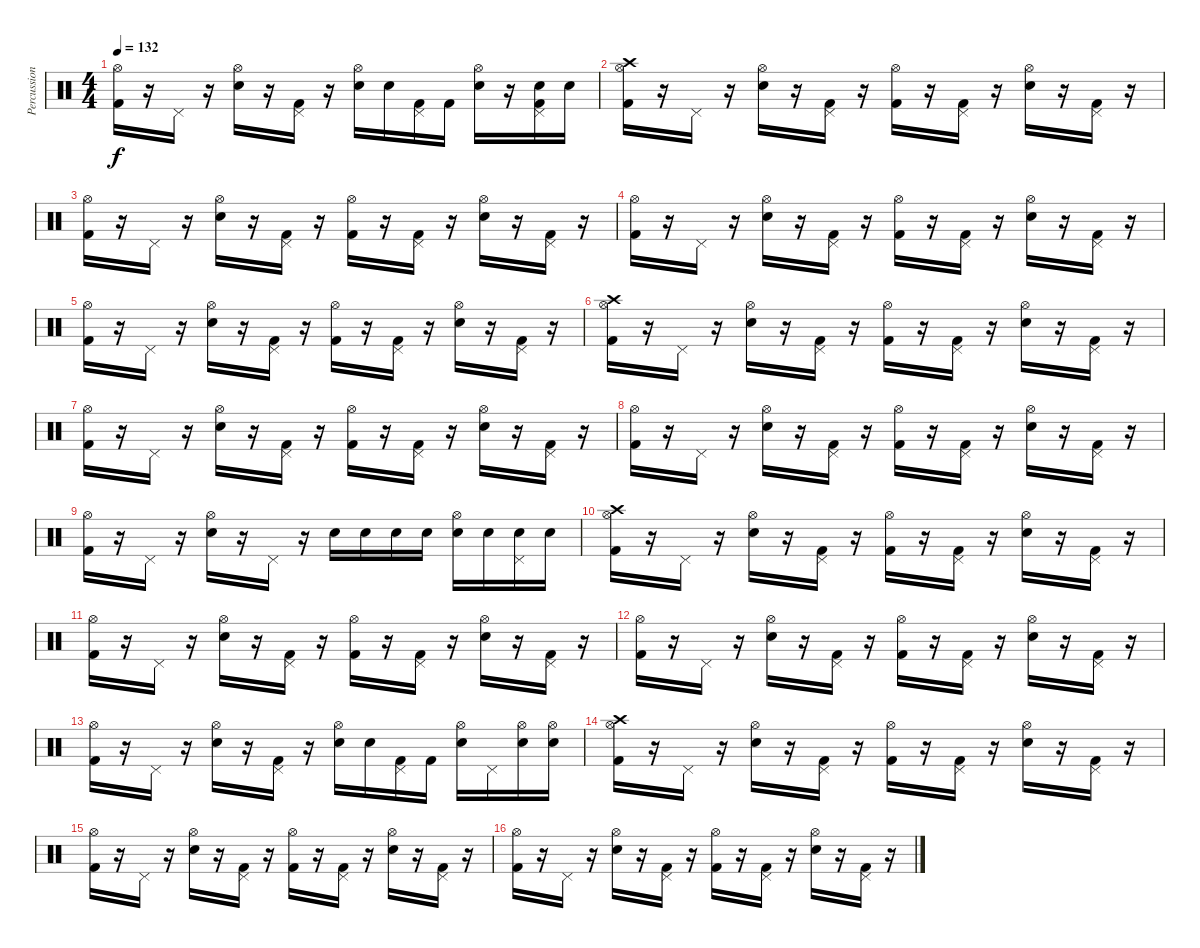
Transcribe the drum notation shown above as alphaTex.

\track ("Percussion" "Percussion") {instrument percussion}
\staff {score}
\articulation defaults
\ts (4 4)
\tempo 132
\clef neutral
\ks c
("Hi-Hat (open)" "Kick (hit) 2").16{dy f} r.16 "Pedal Hi-Hat (hit)".16 r.16 ("Snare (hit) 2" "Hi-Hat (open)").16 r.16 ("Kick (hit) 2" "Pedal Hi-Hat (hit)").16 r.16 ("Hi-Hat (open)" "Snare (hit) 2").16 "Snare (hit) 2".16 ("Kick (hit) 2" "Pedal Hi-Hat (hit)").16 "Kick (hit) 2".16 ("Snare (hit) 2" "Hi-Hat (open)").16 r.16 ("Kick (hit) 2" "Pedal Hi-Hat (hit)" "Snare (hit) 2").16 "Snare (hit) 2".16 |
("Crash high (hit)" "Hi-Hat (open)" "Kick (hit) 2").16 r.16 "Pedal Hi-Hat (hit)".16 r.16 ("Hi-Hat (open)" "Snare (hit) 2").16 r.16 ("Pedal Hi-Hat (hit)" "Kick (hit) 2").16 r.16 ("Hi-Hat (open)" "Kick (hit) 2").16 r.16 ("Pedal Hi-Hat (hit)" "Kick (hit) 2").16 r.16 ("Hi-Hat (open)" "Snare (hit) 2").16 r.16 ("Pedal Hi-Hat (hit)" "Kick (hit) 2").16 r.16 |
("Kick (hit) 2" "Hi-Hat (open)").16 r.16 "Pedal Hi-Hat (hit)".16 r.16 ("Snare (hit) 2" "Hi-Hat (open)").16 r.16 ("Kick (hit) 2" "Pedal Hi-Hat (hit)").16 r.16 ("Kick (hit) 2" "Hi-Hat (open)").16 r.16 ("Kick (hit) 2" "Pedal Hi-Hat (hit)").16 r.16 ("Snare (hit) 2" "Hi-Hat (open)").16 r.16 ("Kick (hit) 2" "Pedal Hi-Hat (hit)").16 r.16 |
("Kick (hit) 2" "Hi-Hat (open)").16 r.16 "Pedal Hi-Hat (hit)".16 r.16 ("Snare (hit) 2" "Hi-Hat (open)").16 r.16 ("Kick (hit) 2" "Pedal Hi-Hat (hit)").16 r.16 ("Kick (hit) 2" "Hi-Hat (open)").16 r.16 ("Kick (hit) 2" "Pedal Hi-Hat (hit)").16 r.16 ("Snare (hit) 2" "Hi-Hat (open)").16 r.16 ("Kick (hit) 2" "Pedal Hi-Hat (hit)").16 r.16 |
("Kick (hit) 2" "Hi-Hat (open)").16 r.16 "Pedal Hi-Hat (hit)".16 r.16 ("Snare (hit) 2" "Hi-Hat (open)").16 r.16 ("Kick (hit) 2" "Pedal Hi-Hat (hit)").16 r.16 ("Kick (hit) 2" "Hi-Hat (open)").16 r.16 ("Kick (hit) 2" "Pedal Hi-Hat (hit)").16 r.16 ("Snare (hit) 2" "Hi-Hat (open)").16 r.16 ("Kick (hit) 2" "Pedal Hi-Hat (hit)").16 r.16 |
("Crash high (hit)" "Hi-Hat (open)" "Kick (hit) 2").16 r.16 "Pedal Hi-Hat (hit)".16 r.16 ("Hi-Hat (open)" "Snare (hit) 2").16 r.16 ("Pedal Hi-Hat (hit)" "Kick (hit) 2").16 r.16 ("Hi-Hat (open)" "Kick (hit) 2").16 r.16 ("Pedal Hi-Hat (hit)" "Kick (hit) 2").16 r.16 ("Hi-Hat (open)" "Snare (hit) 2").16 r.16 ("Pedal Hi-Hat (hit)" "Kick (hit) 2").16 r.16 |
("Kick (hit) 2" "Hi-Hat (open)").16 r.16 "Pedal Hi-Hat (hit)".16 r.16 ("Snare (hit) 2" "Hi-Hat (open)").16 r.16 ("Kick (hit) 2" "Pedal Hi-Hat (hit)").16 r.16 ("Kick (hit) 2" "Hi-Hat (open)").16 r.16 ("Kick (hit) 2" "Pedal Hi-Hat (hit)").16 r.16 ("Snare (hit) 2" "Hi-Hat (open)").16 r.16 ("Kick (hit) 2" "Pedal Hi-Hat (hit)").16 r.16 |
("Kick (hit) 2" "Hi-Hat (open)").16 r.16 "Pedal Hi-Hat (hit)".16 r.16 ("Snare (hit) 2" "Hi-Hat (open)").16 r.16 ("Kick (hit) 2" "Pedal Hi-Hat (hit)").16 r.16 ("Kick (hit) 2" "Hi-Hat (open)").16 r.16 ("Kick (hit) 2" "Pedal Hi-Hat (hit)").16 r.16 ("Snare (hit) 2" "Hi-Hat (open)").16 r.16 ("Kick (hit) 2" "Pedal Hi-Hat (hit)").16 r.16 |
("Kick (hit) 2" "Hi-Hat (open)").16 r.16 "Pedal Hi-Hat (hit)".16 r.16 ("Snare (hit) 2" "Hi-Hat (open)").16 r.16 "Pedal Hi-Hat (hit)".16 r.16 "Snare (hit) 2".16 "Snare (hit) 2".16 "Snare (hit) 2".16 "Snare (hit) 2".16 ("Snare (hit) 2" "Hi-Hat (open)").16 "Snare (hit) 2".16 ("Snare (hit) 2" "Pedal Hi-Hat (hit)").16 "Snare (hit) 2".16 |
("Kick (hit) 2" "Crash high (hit)" "Hi-Hat (open)").16 r.16 "Pedal Hi-Hat (hit)".16 r.16 ("Snare (hit) 2" "Hi-Hat (open)").16 r.16 ("Kick (hit) 2" "Pedal Hi-Hat (hit)").16 r.16 ("Kick (hit) 2" "Hi-Hat (open)").16 r.16 ("Kick (hit) 2" "Pedal Hi-Hat (hit)").16 r.16 ("Snare (hit) 2" "Hi-Hat (open)").16 r.16 ("Kick (hit) 2" "Pedal Hi-Hat (hit)").16 r.16 |
("Kick (hit) 2" "Hi-Hat (open)").16 r.16 "Pedal Hi-Hat (hit)".16 r.16 ("Snare (hit) 2" "Hi-Hat (open)").16 r.16 ("Kick (hit) 2" "Pedal Hi-Hat (hit)").16 r.16 ("Kick (hit) 2" "Hi-Hat (open)").16 r.16 ("Kick (hit) 2" "Pedal Hi-Hat (hit)").16 r.16 ("Snare (hit) 2" "Hi-Hat (open)").16 r.16 ("Kick (hit) 2" "Pedal Hi-Hat (hit)").16 r.16 |
("Kick (hit) 2" "Hi-Hat (open)").16 r.16 "Pedal Hi-Hat (hit)".16 r.16 ("Snare (hit) 2" "Hi-Hat (open)").16 r.16 ("Kick (hit) 2" "Pedal Hi-Hat (hit)").16 r.16 ("Kick (hit) 2" "Hi-Hat (open)").16 r.16 ("Kick (hit) 2" "Pedal Hi-Hat (hit)").16 r.16 ("Snare (hit) 2" "Hi-Hat (open)").16 r.16 ("Kick (hit) 2" "Pedal Hi-Hat (hit)").16 r.16 |
("Hi-Hat (open)" "Kick (hit) 2").16 r.16 "Pedal Hi-Hat (hit)".16 r.16 ("Hi-Hat (open)" "Snare (hit) 2").16 r.16 ("Pedal Hi-Hat (hit)" "Kick (hit) 2").16 r.16 ("Snare (hit) 2" "Hi-Hat (open)").16 "Snare (hit) 2".16 ("Kick (hit) 2" "Pedal Hi-Hat (hit)").16 "Kick (hit) 2".16 ("Snare (hit) 2" "Hi-Hat (open)").16 "Pedal Hi-Hat (hit)".16 ("Snare (hit) 2" "Hi-Hat (open)").16 ("Snare (hit) 2" "Hi-Hat (open)").16 |
("Crash high (hit)" "Hi-Hat (open)" "Kick (hit) 2").16 r.16 "Pedal Hi-Hat (hit)".16 r.16 ("Hi-Hat (open)" "Snare (hit) 2").16 r.16 ("Pedal Hi-Hat (hit)" "Kick (hit) 2").16 r.16 ("Hi-Hat (open)" "Kick (hit) 2").16 r.16 ("Pedal Hi-Hat (hit)" "Kick (hit) 2").16 r.16 ("Hi-Hat (open)" "Snare (hit) 2").16 r.16 ("Pedal Hi-Hat (hit)" "Kick (hit) 2").16 r.16 |
("Kick (hit) 2" "Hi-Hat (open)").16 r.16 "Pedal Hi-Hat (hit)".16 r.16 ("Snare (hit) 2" "Hi-Hat (open)").16 r.16 ("Kick (hit) 2" "Pedal Hi-Hat (hit)").16 r.16 ("Kick (hit) 2" "Hi-Hat (open)").16 r.16 ("Kick (hit) 2" "Pedal Hi-Hat (hit)").16 r.16 ("Snare (hit) 2" "Hi-Hat (open)").16 r.16 ("Kick (hit) 2" "Pedal Hi-Hat (hit)").16 r.16 |
("Kick (hit) 2" "Hi-Hat (open)").16 r.16 "Pedal Hi-Hat (hit)".16 r.16 ("Snare (hit) 2" "Hi-Hat (open)").16 r.16 ("Kick (hit) 2" "Pedal Hi-Hat (hit)").16 r.16 ("Kick (hit) 2" "Hi-Hat (open)").16 r.16 ("Kick (hit) 2" "Pedal Hi-Hat (hit)").16 r.16 ("Snare (hit) 2" "Hi-Hat (open)").16 r.16 ("Kick (hit) 2" "Pedal Hi-Hat (hit)").16 r.16
